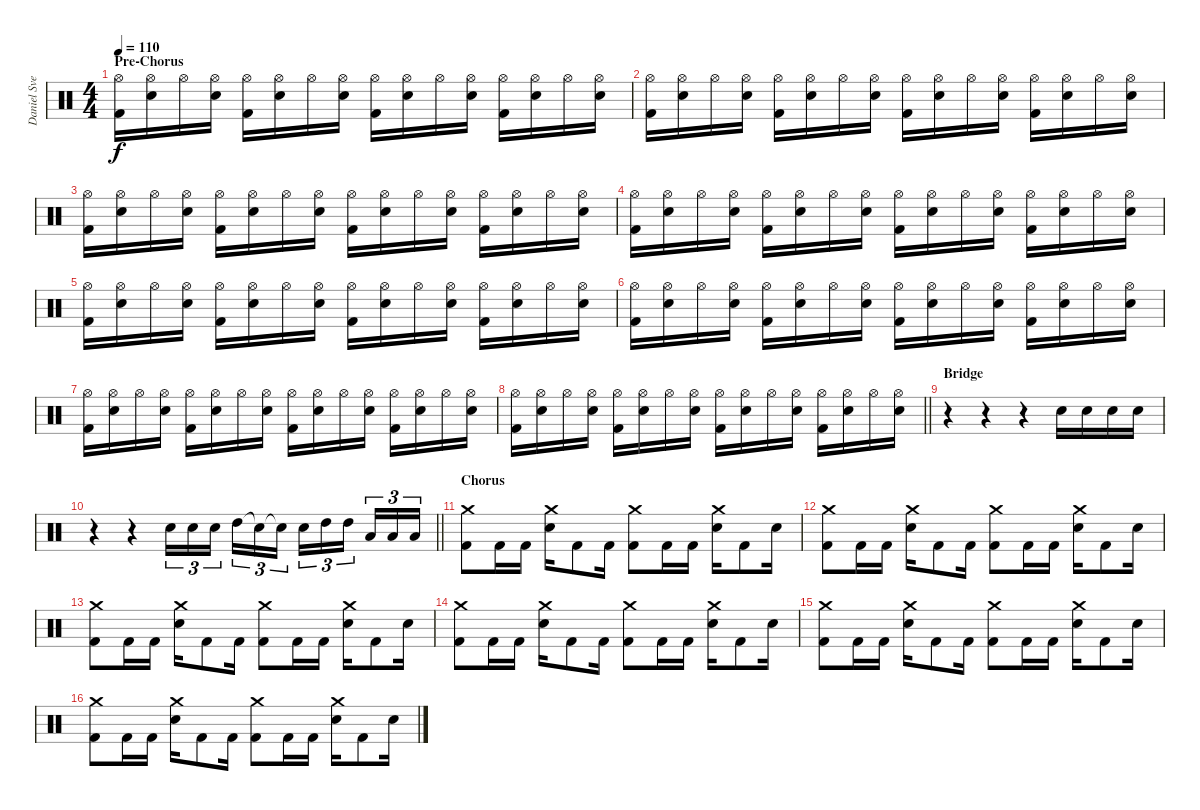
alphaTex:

\track ("Daniel Svennson" "Daniel Sve") {instrument percussion}
\staff {score}
\articulation defaults
\ts (4 4)
\section ("" "Pre-Chorus")
\tempo 110
\clef neutral
\ks c
("Hi-Hat (open)" "Kick (hit) 2").16{dy f} ("Hi-Hat (open)" "Snare (hit) 2").16 "Hi-Hat (open)".16 ("Hi-Hat (open)" "Snare (hit) 2").16 ("Hi-Hat (open)" "Kick (hit) 2").16 ("Hi-Hat (open)" "Snare (hit) 2").16 "Hi-Hat (open)".16 ("Hi-Hat (open)" "Snare (hit) 2").16 ("Hi-Hat (open)" "Kick (hit) 2").16 ("Hi-Hat (open)" "Snare (hit) 2").16 "Hi-Hat (open)".16 ("Hi-Hat (open)" "Snare (hit) 2").16 ("Hi-Hat (open)" "Kick (hit) 2").16 ("Hi-Hat (open)" "Snare (hit) 2").16 "Hi-Hat (open)".16 ("Hi-Hat (open)" "Snare (hit) 2").16 |
("Hi-Hat (open)" "Kick (hit) 2").16 ("Hi-Hat (open)" "Snare (hit) 2").16 "Hi-Hat (open)".16 ("Hi-Hat (open)" "Snare (hit) 2").16 ("Hi-Hat (open)" "Kick (hit) 2").16 ("Hi-Hat (open)" "Snare (hit) 2").16 "Hi-Hat (open)".16 ("Hi-Hat (open)" "Snare (hit) 2").16 ("Hi-Hat (open)" "Kick (hit) 2").16 ("Hi-Hat (open)" "Snare (hit) 2").16 "Hi-Hat (open)".16 ("Hi-Hat (open)" "Snare (hit) 2").16 ("Hi-Hat (open)" "Kick (hit) 2").16 ("Hi-Hat (open)" "Snare (hit) 2").16 "Hi-Hat (open)".16 ("Hi-Hat (open)" "Snare (hit) 2").16 |
("Hi-Hat (open)" "Kick (hit) 2").16 ("Hi-Hat (open)" "Snare (hit) 2").16 "Hi-Hat (open)".16 ("Hi-Hat (open)" "Snare (hit) 2").16 ("Hi-Hat (open)" "Kick (hit) 2").16 ("Hi-Hat (open)" "Snare (hit) 2").16 "Hi-Hat (open)".16 ("Hi-Hat (open)" "Snare (hit) 2").16 ("Hi-Hat (open)" "Kick (hit) 2").16 ("Hi-Hat (open)" "Snare (hit) 2").16 "Hi-Hat (open)".16 ("Hi-Hat (open)" "Snare (hit) 2").16 ("Hi-Hat (open)" "Kick (hit) 2").16 ("Hi-Hat (open)" "Snare (hit) 2").16 "Hi-Hat (open)".16 ("Hi-Hat (open)" "Snare (hit) 2").16 |
("Hi-Hat (open)" "Kick (hit) 2").16 ("Hi-Hat (open)" "Snare (hit) 2").16 "Hi-Hat (open)".16 ("Hi-Hat (open)" "Snare (hit) 2").16 ("Hi-Hat (open)" "Kick (hit) 2").16 ("Hi-Hat (open)" "Snare (hit) 2").16 "Hi-Hat (open)".16 ("Hi-Hat (open)" "Snare (hit) 2").16 ("Hi-Hat (open)" "Kick (hit) 2").16 ("Hi-Hat (open)" "Snare (hit) 2").16 "Hi-Hat (open)".16 ("Hi-Hat (open)" "Snare (hit) 2").16 ("Hi-Hat (open)" "Kick (hit) 2").16 ("Hi-Hat (open)" "Snare (hit) 2").16 "Hi-Hat (open)".16 ("Hi-Hat (open)" "Snare (hit) 2").16 |
("Hi-Hat (open)" "Kick (hit) 2").16 ("Hi-Hat (open)" "Snare (hit) 2").16 "Hi-Hat (open)".16 ("Hi-Hat (open)" "Snare (hit) 2").16 ("Hi-Hat (open)" "Kick (hit) 2").16 ("Hi-Hat (open)" "Snare (hit) 2").16 "Hi-Hat (open)".16 ("Hi-Hat (open)" "Snare (hit) 2").16 ("Hi-Hat (open)" "Kick (hit) 2").16 ("Hi-Hat (open)" "Snare (hit) 2").16 "Hi-Hat (open)".16 ("Hi-Hat (open)" "Snare (hit) 2").16 ("Hi-Hat (open)" "Kick (hit) 2").16 ("Hi-Hat (open)" "Snare (hit) 2").16 "Hi-Hat (open)".16 ("Hi-Hat (open)" "Snare (hit) 2").16 |
("Hi-Hat (open)" "Kick (hit) 2").16 ("Hi-Hat (open)" "Snare (hit) 2").16 "Hi-Hat (open)".16 ("Hi-Hat (open)" "Snare (hit) 2").16 ("Hi-Hat (open)" "Kick (hit) 2").16 ("Hi-Hat (open)" "Snare (hit) 2").16 "Hi-Hat (open)".16 ("Hi-Hat (open)" "Snare (hit) 2").16 ("Hi-Hat (open)" "Kick (hit) 2").16 ("Hi-Hat (open)" "Snare (hit) 2").16 "Hi-Hat (open)".16 ("Hi-Hat (open)" "Snare (hit) 2").16 ("Hi-Hat (open)" "Kick (hit) 2").16 ("Hi-Hat (open)" "Snare (hit) 2").16 "Hi-Hat (open)".16 ("Hi-Hat (open)" "Snare (hit) 2").16 |
("Hi-Hat (open)" "Kick (hit) 2").16 ("Hi-Hat (open)" "Snare (hit) 2").16 "Hi-Hat (open)".16 ("Hi-Hat (open)" "Snare (hit) 2").16 ("Hi-Hat (open)" "Kick (hit) 2").16 ("Hi-Hat (open)" "Snare (hit) 2").16 "Hi-Hat (open)".16 ("Hi-Hat (open)" "Snare (hit) 2").16 ("Hi-Hat (open)" "Kick (hit) 2").16 ("Hi-Hat (open)" "Snare (hit) 2").16 "Hi-Hat (open)".16 ("Hi-Hat (open)" "Snare (hit) 2").16 ("Hi-Hat (open)" "Kick (hit) 2").16 ("Hi-Hat (open)" "Snare (hit) 2").16 "Hi-Hat (open)".16 ("Hi-Hat (open)" "Snare (hit) 2").16 |
\barLineRight lightlight
("Hi-Hat (open)" "Kick (hit) 2").16 ("Hi-Hat (open)" "Snare (hit) 2").16 "Hi-Hat (open)".16 ("Hi-Hat (open)" "Snare (hit) 2").16 ("Hi-Hat (open)" "Kick (hit) 2").16 ("Hi-Hat (open)" "Snare (hit) 2").16 "Hi-Hat (open)".16 ("Hi-Hat (open)" "Snare (hit) 2").16 ("Hi-Hat (open)" "Kick (hit) 2").16 ("Hi-Hat (open)" "Snare (hit) 2").16 "Hi-Hat (open)".16 ("Hi-Hat (open)" "Snare (hit) 2").16 ("Hi-Hat (open)" "Kick (hit) 2").16 ("Hi-Hat (open)" "Snare (hit) 2").16 "Hi-Hat (open)".16 ("Hi-Hat (open)" "Snare (hit) 2").16 |
\section ("" "Bridge")
r.4 r.4 r.4 "Snare (hit) 2".16 "Snare (hit) 2".16 "Snare (hit) 2".16 "Snare (hit) 2".16 |
\barLineRight lightlight
r.4 r.4 "Snare (hit) 2".16{tu (3 2)} "Snare (hit) 2".16{tu (3 2)} "Snare (hit) 2".16{tu (3 2)} "High Tom (hit)".16{tu (3 2)} "Snare (hit)"{t}.16{tu (3 2)} "Snare (hit)"{t}.16{tu (3 2)} "Snare (hit) 2".16{tu (3 2)} "High Tom (hit)".16{tu (3 2)} "High Tom (hit)".16{tu (3 2)} "Low Tom (hit)".16{tu (3 2)} "Low Tom (hit)".16{tu (3 2)} "Low Floor Tom (hit)".16{tu (3 2)} |
\section ("" "Chorus")
("Kick (hit) 2" "Crash medium (hit)").8 "Kick (hit) 2".16 "Kick (hit) 2".16 ("Snare (hit) 2" "Crash medium (hit)").16 "Kick (hit) 2".8 "Kick (hit) 2".16 ("Kick (hit) 2" "Crash medium (hit)").8 "Kick (hit) 2".16 "Kick (hit) 2".16 ("Snare (hit) 2" "Crash medium (hit)").16 "Kick (hit) 2".8 "Snare (hit) 2".16 |
("Kick (hit) 2" "Crash medium (hit)").8 "Kick (hit) 2".16 "Kick (hit) 2".16 ("Snare (hit) 2" "Crash medium (hit)").16 "Kick (hit) 2".8 "Kick (hit) 2".16 ("Kick (hit) 2" "Crash medium (hit)").8 "Kick (hit) 2".16 "Kick (hit) 2".16 ("Snare (hit) 2" "Crash medium (hit)").16 "Kick (hit) 2".8 "Snare (hit) 2".16 |
("Kick (hit) 2" "Crash medium (hit)").8 "Kick (hit) 2".16 "Kick (hit) 2".16 ("Snare (hit) 2" "Crash medium (hit)").16 "Kick (hit) 2".8 "Kick (hit) 2".16 ("Kick (hit) 2" "Crash medium (hit)").8 "Kick (hit) 2".16 "Kick (hit) 2".16 ("Snare (hit) 2" "Crash medium (hit)").16 "Kick (hit) 2".8 "Snare (hit) 2".16 |
("Kick (hit) 2" "Crash medium (hit)").8 "Kick (hit) 2".16 "Kick (hit) 2".16 ("Snare (hit) 2" "Crash medium (hit)").16 "Kick (hit) 2".8 "Kick (hit) 2".16 ("Kick (hit) 2" "Crash medium (hit)").8 "Kick (hit) 2".16 "Kick (hit) 2".16 ("Snare (hit) 2" "Crash medium (hit)").16 "Kick (hit) 2".8 "Snare (hit) 2".16 |
("Kick (hit) 2" "Crash medium (hit)").8 "Kick (hit) 2".16 "Kick (hit) 2".16 ("Snare (hit) 2" "Crash medium (hit)").16 "Kick (hit) 2".8 "Kick (hit) 2".16 ("Kick (hit) 2" "Crash medium (hit)").8 "Kick (hit) 2".16 "Kick (hit) 2".16 ("Snare (hit) 2" "Crash medium (hit)").16 "Kick (hit) 2".8 "Snare (hit) 2".16 |
("Kick (hit) 2" "Crash medium (hit)").8 "Kick (hit) 2".16 "Kick (hit) 2".16 ("Snare (hit) 2" "Crash medium (hit)").16 "Kick (hit) 2".8 "Kick (hit) 2".16 ("Kick (hit) 2" "Crash medium (hit)").8 "Kick (hit) 2".16 "Kick (hit) 2".16 ("Snare (hit) 2" "Crash medium (hit)").16 "Kick (hit) 2".8 "Snare (hit) 2".16
